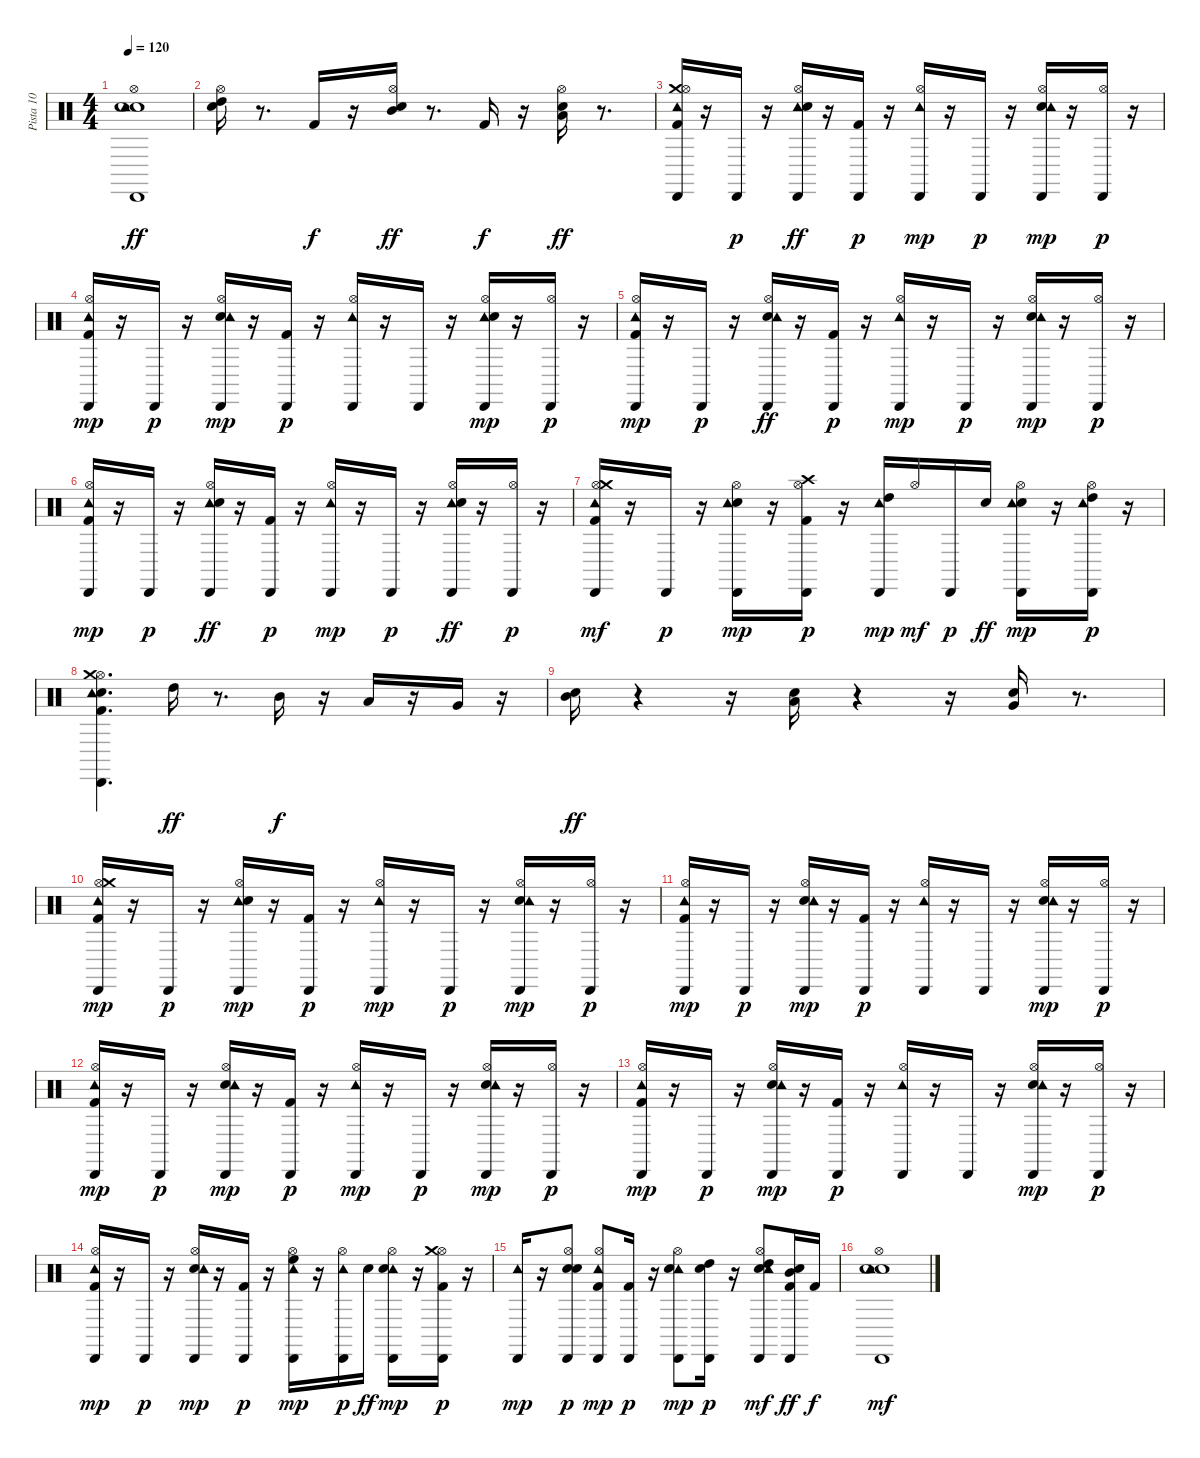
\track ("Pista 10" "Pista 10") {instrument percussion}
\staff {score}
\articulation defaults
\ts (4 4)
\tempo 120
\clef neutral
\ks c
("Electric Snare (hit)" "Hi-Hat (open)" "Cabasa (hit)" "Tambourine (hit)" "Electric Snare (hit)").1{dy ff} |
("Electric Snare (hit)" "Hi-Hat (open)" "High Tom (hit)").16 r.8{d} "Kick (hit) 2".16{dy f} r.16 ("Electric Snare (hit)" "Hi-Hat (open)" "Mid Tom (hit)").16{dy ff} r.8{d} "Kick (hit) 2".16{dy f} r.16 ("Hi-Hat (open)" "Electric Snare (hit)" "Low Tom (hit)").16{dy ff} r.8{d} |
("Tambourine (hit)" "Cabasa (hit)" "Crash medium (hit)" "Kick (hit) 2" "Hi-Hat (open)").16 r.16 "Cabasa (hit)".16{dy p} r.16 ("Hi-Hat (open)" "Tambourine (hit)" "Cabasa (hit)" "Electric Snare (hit)").16{dy ff} r.16 ("Kick (hit) 2" "Cabasa (hit)").16{dy p} r.16 ("Tambourine (hit)" "Cabasa (hit)" "Hi-Hat (open)").16{dy mp} r.16 "Cabasa (hit)".16{dy p} r.16 ("Electric Snare (hit)" "Hi-Hat (open)" "Tambourine (hit)" "Cabasa (hit)").16{dy mp} r.16 ("Hi-Hat (open)" "Cabasa (hit)").16{dy p} r.16 |
("Kick (hit) 2" "Cabasa (hit)" "Tambourine (hit)" "Hi-Hat (open)").16{dy mp} r.16 "Cabasa (hit)".16{dy p} r.16 ("Electric Snare (hit)" "Hi-Hat (open)" "Cabasa (hit)" "Tambourine (hit)").16{dy mp} r.16 ("Kick (hit) 2" "Cabasa (hit)").16{dy p} r.16 ("Cabasa (hit)" "Tambourine (hit)" "Hi-Hat (open)").16 r.16 "Cabasa (hit)".16 r.16 ("Tambourine (hit)" "Hi-Hat (open)" "Electric Snare (hit)" "Cabasa (hit)").16{dy mp} r.16 ("Hi-Hat (open)" "Cabasa (hit)").16{dy p} r.16 |
("Kick (hit) 2" "Hi-Hat (open)" "Cabasa (hit)" "Tambourine (hit)").16{dy mp} r.16 "Cabasa (hit)".16{dy p} r.16 ("Cabasa (hit)" "Hi-Hat (open)" "Electric Snare (hit)" "Tambourine (hit)").16{dy ff} r.16 ("Kick (hit) 2" "Cabasa (hit)").16{dy p} r.16 ("Hi-Hat (open)" "Cabasa (hit)" "Tambourine (hit)").16{dy mp} r.16 "Cabasa (hit)".16{dy p} r.16 ("Electric Snare (hit)" "Cabasa (hit)" "Hi-Hat (open)" "Tambourine (hit)").16{dy mp} r.16 ("Cabasa (hit)" "Hi-Hat (open)").16{dy p} r.16 |
("Hi-Hat (open)" "Cabasa (hit)" "Tambourine (hit)" "Kick (hit) 2").16{dy mp} r.16 "Cabasa (hit)".16{dy p} r.16 ("Hi-Hat (open)" "Cabasa (hit)" "Tambourine (hit)" "Electric Snare (hit)").16{dy ff} r.16 ("Kick (hit) 2" "Cabasa (hit)").16{dy p} r.16 ("Hi-Hat (open)" "Tambourine (hit)" "Cabasa (hit)").16{dy mp} r.16 "Cabasa (hit)".16{dy p} r.16 ("Cabasa (hit)" "Tambourine (hit)" "Electric Snare (hit)" "Hi-Hat (open)").16{dy ff} r.16 ("Cabasa (hit)" "Hi-Hat (open)").16{dy p} r.16 |
("Hi-Hat (open)" "Crash medium (hit)" "Cabasa (hit)" "Tambourine (hit)" "Kick (hit) 2").16{dy mf} r.16 "Cabasa (hit)".16{dy p} r.16 ("Electric Snare (hit)" "Hi-Hat (open)" "Cabasa (hit)" "Tambourine (hit)").16{dy mp} r.16 ("Hi-Hat (open)" "Crash high (hit)" "Cabasa (hit)" "Kick (hit) 2").16{dy p} r.16 ("High Tom (hit)" "Cabasa (hit)" "Tambourine (hit)").16{dy mp} "Hi-Hat (open)".16{dy mf} "Cabasa (hit)".16{dy p} "Electric Snare (hit)".16{dy ff} ("Electric Snare (hit)" "Hi-Hat (open)" "Cabasa (hit)" "Tambourine (hit)").16{dy mp} r.16 ("Hi-Hat (open)" "High Tom (hit)" "Tambourine (hit)" "Cabasa (hit)").16{dy p} r.16 |
("Electric Snare (hit)" "Hi-Hat (open)" "Crash medium (hit)" "Cabasa (hit)" "Tambourine (hit)" "Kick (hit) 2").4{d} "High Tom (hit)".16{dy ff} r.8{d} "Mid Tom (hit)".16{dy f} r.16 "Low Tom (hit)".16 r.16 "Very Low Tom (hit)".16 r.16 |
("Mid Tom (hit)" "Electric Snare (hit)").16{dy ff} r.4 r.16 ("Electric Snare (hit)" "Low Tom (hit)").16 r.4 r.16 ("Electric Snare (hit)" "Very Low Tom (hit)").16 r.8{d} |
("Kick (hit) 2" "Hi-Hat (open)" "Crash medium (hit)" "Cabasa (hit)" "Tambourine (hit)").16{dy mp} r.16 "Cabasa (hit)".16{dy p} r.16 ("Tambourine (hit)" "Electric Snare (hit)" "Hi-Hat (open)" "Cabasa (hit)").16{dy mp} r.16 ("Kick (hit) 2" "Cabasa (hit)").16{dy p} r.16 ("Cabasa (hit)" "Tambourine (hit)" "Hi-Hat (open)").16{dy mp} r.16 "Cabasa (hit)".16{dy p} r.16 ("Electric Snare (hit)" "Tambourine (hit)" "Hi-Hat (open)" "Cabasa (hit)").16{dy mp} r.16 ("Hi-Hat (open)" "Cabasa (hit)").16{dy p} r.16 |
("Tambourine (hit)" "Kick (hit) 2" "Hi-Hat (open)" "Cabasa (hit)").16{dy mp} r.16 "Cabasa (hit)".16{dy p} r.16 ("Electric Snare (hit)" "Cabasa (hit)" "Tambourine (hit)" "Hi-Hat (open)").16{dy mp} r.16 ("Kick (hit) 2" "Cabasa (hit)").16{dy p} r.16 ("Hi-Hat (open)" "Cabasa (hit)" "Tambourine (hit)").16 r.16 "Cabasa (hit)".16 r.16 ("Electric Snare (hit)" "Hi-Hat (open)" "Tambourine (hit)" "Cabasa (hit)").16{dy mp} r.16 ("Hi-Hat (open)" "Cabasa (hit)").16{dy p} r.16 |
("Hi-Hat (open)" "Kick (hit) 2" "Tambourine (hit)" "Cabasa (hit)").16{dy mp} r.16 "Cabasa (hit)".16{dy p} r.16 ("Electric Snare (hit)" "Hi-Hat (open)" "Tambourine (hit)" "Cabasa (hit)").16{dy mp} r.16 ("Kick (hit) 2" "Cabasa (hit)").16{dy p} r.16 ("Hi-Hat (open)" "Cabasa (hit)" "Tambourine (hit)").16{dy mp} r.16 "Cabasa (hit)".16{dy p} r.16 ("Electric Snare (hit)" "Hi-Hat (open)" "Cabasa (hit)" "Tambourine (hit)").16{dy mp} r.16 ("Hi-Hat (open)" "Cabasa (hit)").16{dy p} r.16 |
("Tambourine (hit)" "Kick (hit) 2" "Hi-Hat (open)" "Cabasa (hit)").16{dy mp} r.16 "Cabasa (hit)".16{dy p} r.16 ("Electric Snare (hit)" "Hi-Hat (open)" "Cabasa (hit)" "Tambourine (hit)").16{dy mp} r.16 ("Kick (hit) 2" "Cabasa (hit)").16{dy p} r.16 ("Cabasa (hit)" "Tambourine (hit)" "Hi-Hat (open)").16 r.16 "Cabasa (hit)".16 r.16 ("Electric Snare (hit)" "Hi-Hat (open)" "Cabasa (hit)" "Tambourine (hit)").16{dy mp} r.16 ("Hi-Hat (open)" "Cabasa (hit)").16{dy p} r.16 |
("Cabasa (hit)" "Tambourine (hit)" "Kick (hit) 2" "Hi-Hat (open)").16{dy mp} r.16 "Cabasa (hit)".16{dy p} r.16 ("Electric Snare (hit)" "Hi-Hat (open)" "Tambourine (hit)" "Cabasa (hit)").16{dy mp} r.16 ("Kick (hit) 2" "Cabasa (hit)").16{dy p} r.16 ("Hi-Hat (open)" "High Floor Tom (hit)" "Cabasa (hit)" "Tambourine (hit)").16{dy mp} r.16 ("Hi-Hat (open)" "Tambourine (hit)" "Cabasa (hit)").16{dy p} "Electric Snare (hit)".16{dy ff} ("Tambourine (hit)" "Electric Snare (hit)" "Hi-Hat (open)" "Cabasa (hit)").16{dy mp} r.16 ("Kick (hit) 2" "Hi-Hat (open)" "Crash medium (hit)" "Cabasa (hit)").16{dy p} r.16 |
("Tambourine (hit)" "Cabasa (hit)").16{dy mp} r.16 ("Electric Snare (hit)" "Electric Snare (hit)" "Hi-Hat (open)" "Cabasa (hit)").8{dy p} ("Kick (hit) 2" "Tambourine (hit)" "Hi-Hat (open)" "Cabasa (hit)").8{dy mp} ("Kick (hit) 2" "Cabasa (hit)").16{dy p} r.16 ("Tambourine (hit)" "Electric Snare (hit)" "Hi-Hat (open)" "Cabasa (hit)").8{dy mp} ("Electric Snare (hit)" "High Tom (hit)" "Cabasa (hit)").16{dy p} r.16 ("High Tom (hit)" "Electric Snare (hit)" "Hi-Hat (open)" "Cabasa (hit)" "Tambourine (hit)").8{dy mf} ("Mid Tom (hit)" "Cabasa (hit)" "Kick (hit) 2" "Electric Snare (hit)").16{dy ff} "Kick (hit) 2".16{dy f} |
("Electric Snare (hit)" "Electric Snare (hit)" "Hi-Hat (open)" "Cabasa (hit)" "Tambourine (hit)").1{dy mf}
